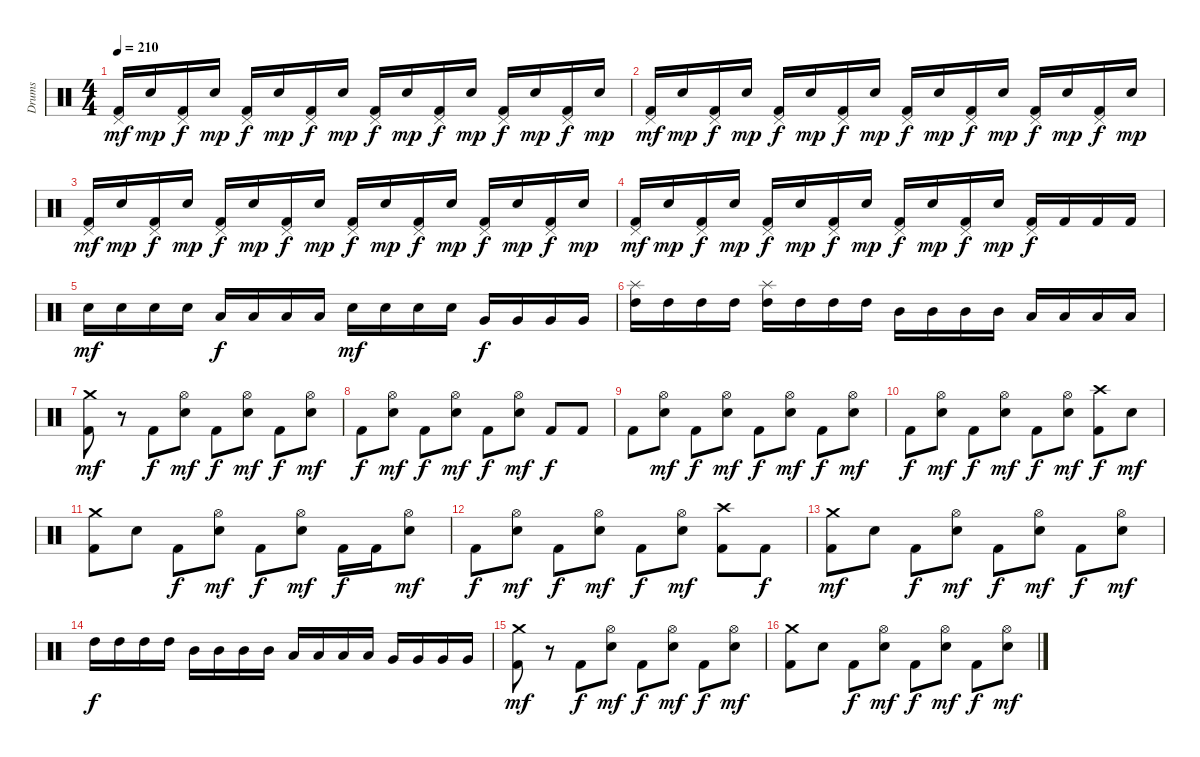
\track ("Drums" "Drums") {instrument percussion}
\staff {score}
\articulation defaults
\ts (4 4)
\tempo 210
\clef neutral
\ks c
("Pedal Hi-Hat (hit)" "Kick (hit) 2").16{dy mf} "Electric Snare (hit)".16{dy mp} ("Pedal Hi-Hat (hit)" "Kick (hit) 2").16{dy f} "Electric Snare (hit)".16{dy mp} ("Pedal Hi-Hat (hit)" "Kick (hit) 2").16{dy f} "Electric Snare (hit)".16{dy mp} ("Pedal Hi-Hat (hit)" "Kick (hit) 2").16{dy f} "Electric Snare (hit)".16{dy mp} ("Pedal Hi-Hat (hit)" "Kick (hit) 2").16{dy f} "Electric Snare (hit)".16{dy mp} ("Pedal Hi-Hat (hit)" "Kick (hit) 2").16{dy f} "Electric Snare (hit)".16{dy mp} ("Pedal Hi-Hat (hit)" "Kick (hit) 2").16{dy f} "Electric Snare (hit)".16{dy mp} ("Pedal Hi-Hat (hit)" "Kick (hit) 2").16{dy f} "Electric Snare (hit)".16{dy mp} |
("Pedal Hi-Hat (hit)" "Kick (hit) 2").16{dy mf} "Electric Snare (hit)".16{dy mp} ("Pedal Hi-Hat (hit)" "Kick (hit) 2").16{dy f} "Electric Snare (hit)".16{dy mp} ("Pedal Hi-Hat (hit)" "Kick (hit) 2").16{dy f} "Electric Snare (hit)".16{dy mp} ("Pedal Hi-Hat (hit)" "Kick (hit) 2").16{dy f} "Electric Snare (hit)".16{dy mp} ("Pedal Hi-Hat (hit)" "Kick (hit) 2").16{dy f} "Electric Snare (hit)".16{dy mp} ("Pedal Hi-Hat (hit)" "Kick (hit) 2").16{dy f} "Electric Snare (hit)".16{dy mp} ("Pedal Hi-Hat (hit)" "Kick (hit) 2").16{dy f} "Electric Snare (hit)".16{dy mp} ("Pedal Hi-Hat (hit)" "Kick (hit) 2").16{dy f} "Electric Snare (hit)".16{dy mp} |
("Pedal Hi-Hat (hit)" "Kick (hit) 2").16{dy mf} "Electric Snare (hit)".16{dy mp} ("Pedal Hi-Hat (hit)" "Kick (hit) 2").16{dy f} "Electric Snare (hit)".16{dy mp} ("Pedal Hi-Hat (hit)" "Kick (hit) 2").16{dy f} "Electric Snare (hit)".16{dy mp} ("Pedal Hi-Hat (hit)" "Kick (hit) 2").16{dy f} "Electric Snare (hit)".16{dy mp} ("Pedal Hi-Hat (hit)" "Kick (hit) 2").16{dy f} "Electric Snare (hit)".16{dy mp} ("Pedal Hi-Hat (hit)" "Kick (hit) 2").16{dy f} "Electric Snare (hit)".16{dy mp} ("Pedal Hi-Hat (hit)" "Kick (hit) 2").16{dy f} "Electric Snare (hit)".16{dy mp} ("Pedal Hi-Hat (hit)" "Kick (hit) 2").16{dy f} "Electric Snare (hit)".16{dy mp} |
("Pedal Hi-Hat (hit)" "Kick (hit) 2").16{dy mf} "Electric Snare (hit)".16{dy mp} ("Pedal Hi-Hat (hit)" "Kick (hit) 2").16{dy f} "Electric Snare (hit)".16{dy mp} ("Pedal Hi-Hat (hit)" "Kick (hit) 2").16{dy f} "Electric Snare (hit)".16{dy mp} ("Pedal Hi-Hat (hit)" "Kick (hit) 2").16{dy f} "Electric Snare (hit)".16{dy mp} ("Pedal Hi-Hat (hit)" "Kick (hit) 2").16{dy f} "Electric Snare (hit)".16{dy mp} ("Pedal Hi-Hat (hit)" "Kick (hit) 2").16{dy f} "Electric Snare (hit)".16{dy mp} ("Pedal Hi-Hat (hit)" "Kick (hit) 2").16{dy f} "Kick (hit) 2".16 "Kick (hit) 2".16 "Kick (hit) 2".16 |
"Electric Snare (hit)".16{dy mf} "Electric Snare (hit)".16 "Electric Snare (hit)".16 "Electric Snare (hit)".16 "Low Tom (hit)".16{dy f} "Low Tom (hit)".16 "Low Tom (hit)".16 "Low Tom (hit)".16 "Electric Snare (hit)".16{dy mf} "Electric Snare (hit)".16 "Electric Snare (hit)".16 "Electric Snare (hit)".16 "Very Low Tom (hit)".16{dy f} "Very Low Tom (hit)".16 "Very Low Tom (hit)".16 "Very Low Tom (hit)".16 |
("Splash (hit)" "High Tom (hit)").16 "High Tom (hit)".16 "High Tom (hit)".16 "High Tom (hit)".16 ("Splash (hit)" "High Tom (hit)").16 "High Tom (hit)".16 "High Tom (hit)".16 "High Tom (hit)".16 "Mid Tom (hit)".16 "Mid Tom (hit)".16 "Mid Tom (hit)".16 "Mid Tom (hit)".16 "Low Tom (hit)".16 "Low Tom (hit)".16 "Low Tom (hit)".16 "Low Tom (hit)".16 |
("Crash medium (hit)" "Kick (hit) 2").8{dy mf} r.8 "Kick (hit) 2".8{dy f} ("Hi-Hat (open)" "Electric Snare (hit)").8{dy mf} "Kick (hit) 2".8{dy f} ("Hi-Hat (open)" "Electric Snare (hit)").8{dy mf} "Kick (hit) 2".8{dy f} ("Hi-Hat (open)" "Electric Snare (hit)").8{dy mf} |
"Kick (hit) 2".8{dy f} ("Hi-Hat (open)" "Electric Snare (hit)").8{dy mf} "Kick (hit) 2".8{dy f} ("Hi-Hat (open)" "Electric Snare (hit)").8{dy mf} "Kick (hit) 2".8{dy f} ("Hi-Hat (open)" "Electric Snare (hit)").8{dy mf} "Kick (hit) 2".8{dy f} "Kick (hit) 2".8 |
"Kick (hit) 2".8 ("Hi-Hat (open)" "Electric Snare (hit)").8{dy mf} "Kick (hit) 2".8{dy f} ("Hi-Hat (open)" "Electric Snare (hit)").8{dy mf} "Kick (hit) 2".8{dy f} ("Hi-Hat (open)" "Electric Snare (hit)").8{dy mf} "Kick (hit) 2".8{dy f} ("Hi-Hat (open)" "Electric Snare (hit)").8{dy mf} |
"Kick (hit) 2".8{dy f} ("Hi-Hat (open)" "Electric Snare (hit)").8{dy mf} "Kick (hit) 2".8{dy f} ("Hi-Hat (open)" "Electric Snare (hit)").8{dy mf} "Kick (hit) 2".8{dy f} ("Hi-Hat (open)" "Electric Snare (hit)").8{dy mf} ("Crash high (hit)" "Kick (hit) 2").8{dy f} "Electric Snare (hit)".8{dy mf} |
("Crash medium (hit)" "Kick (hit) 2").8 "Electric Snare (hit)".8 "Kick (hit) 2".8{dy f} ("Hi-Hat (open)" "Electric Snare (hit)").8{dy mf} "Kick (hit) 2".8{dy f} ("Hi-Hat (open)" "Electric Snare (hit)").8{dy mf} "Kick (hit) 2".16{dy f} "Kick (hit) 2".16 ("Hi-Hat (open)" "Electric Snare (hit)").8{dy mf} |
"Kick (hit) 2".8{dy f} ("Hi-Hat (open)" "Electric Snare (hit)").8{dy mf} "Kick (hit) 2".8{dy f} ("Hi-Hat (open)" "Electric Snare (hit)").8{dy mf} "Kick (hit) 2".8{dy f} ("Hi-Hat (open)" "Electric Snare (hit)").8{dy mf} ("Crash high (hit)" "Kick (hit) 2").8 "Kick (hit) 2".8{dy f} |
("Crash medium (hit)" "Kick (hit) 2").8{dy mf} "Electric Snare (hit)".8 "Kick (hit) 2".8{dy f} ("Hi-Hat (open)" "Electric Snare (hit)").8{dy mf} "Kick (hit) 2".8{dy f} ("Hi-Hat (open)" "Electric Snare (hit)").8{dy mf} "Kick (hit) 2".8{dy f} ("Hi-Hat (open)" "Electric Snare (hit)").8{dy mf} |
"High Tom (hit)".16{dy f} "High Tom (hit)".16 "High Tom (hit)".16 "High Tom (hit)".16 "Mid Tom (hit)".16 "Mid Tom (hit)".16 "Mid Tom (hit)".16 "Mid Tom (hit)".16 "Low Tom (hit)".16 "Low Tom (hit)".16 "Low Tom (hit)".16 "Low Tom (hit)".16 "Very Low Tom (hit)".16 "Very Low Tom (hit)".16 "Very Low Tom (hit)".16 "Very Low Tom (hit)".16 |
("Crash medium (hit)" "Kick (hit) 2").8{dy mf} r.8 "Kick (hit) 2".8{dy f} ("Hi-Hat (open)" "Electric Snare (hit)").8{dy mf} "Kick (hit) 2".8{dy f} ("Hi-Hat (open)" "Electric Snare (hit)").8{dy mf} "Kick (hit) 2".8{dy f} ("Hi-Hat (open)" "Electric Snare (hit)").8{dy mf} |
("Crash medium (hit)" "Kick (hit) 2").8 "Electric Snare (hit)".8 "Kick (hit) 2".8{dy f} ("Hi-Hat (open)" "Electric Snare (hit)").8{dy mf} "Kick (hit) 2".8{dy f} ("Hi-Hat (open)" "Electric Snare (hit)").8{dy mf} "Kick (hit) 2".8{dy f} ("Hi-Hat (open)" "Electric Snare (hit)").8{dy mf}
